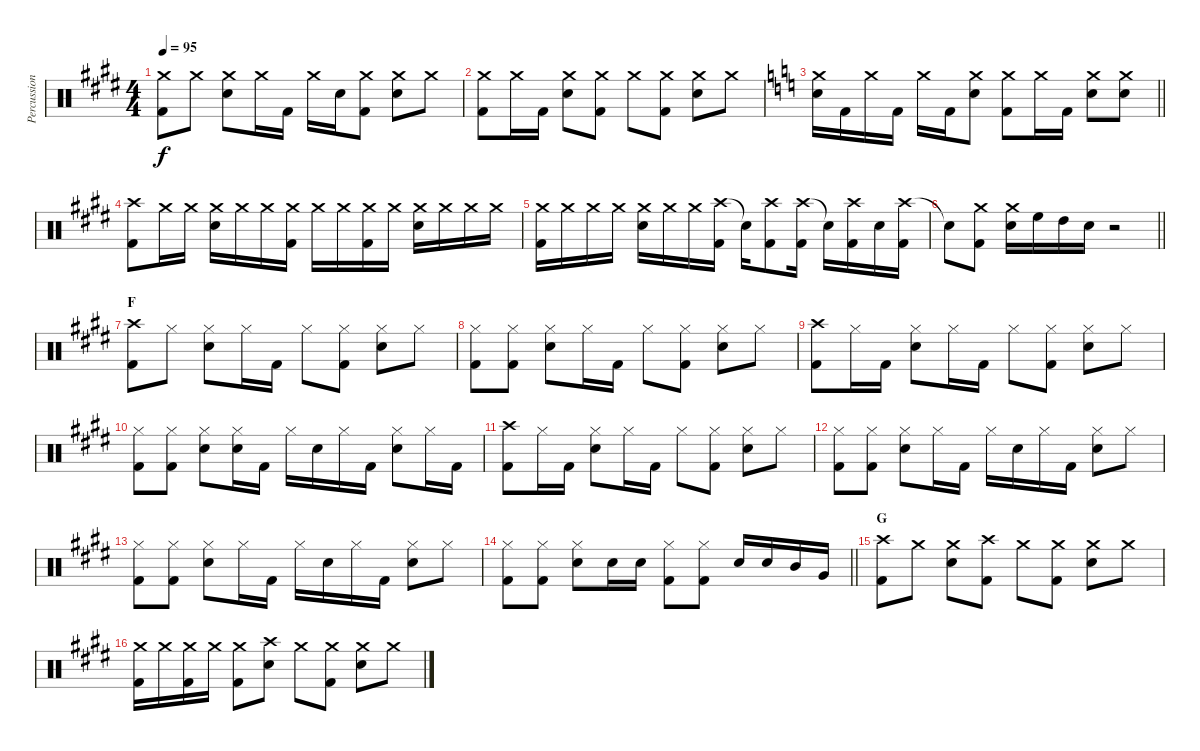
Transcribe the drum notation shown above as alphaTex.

\track ("Percussion" "Percussion") {instrument percussion}
\staff {score}
\articulation defaults
\ts (4 4)
\tempo 95
\clef neutral
\ks e
("Crash medium (hit)" "Kick (hit) 2").8{dy f} "Crash medium (hit)".8 ("Crash medium (hit)" "Snare (hit) 2").8 "Crash medium (hit)".16 "Kick (hit) 2".16 "Crash medium (hit)".16 "Snare (hit) 2".16 ("Crash medium (hit)" "Kick (hit) 2").8 ("Crash medium (hit)" "Snare (hit) 2").8 "Crash medium (hit)".8 |
("Crash medium (hit)" "Kick (hit) 2").8 "Crash medium (hit)".16 "Kick (hit) 2".16 ("Crash medium (hit)" "Snare (hit) 2").8 ("Crash medium (hit)" "Kick (hit) 2").8 "Crash medium (hit)".8 ("Crash medium (hit)" "Kick (hit) 2").8 ("Crash medium (hit)" "Snare (hit) 2").8 "Crash medium (hit)".8 |
\barLineRight lightlight
\ks c
("Crash medium (hit)" "Snare (hit) 2").16 "Kick (hit) 2".16 "Crash medium (hit)".16 "Kick (hit) 2".16 "Crash medium (hit)".16 "Kick (hit) 2".16 ("Crash medium (hit)" "Snare (hit) 2").8 ("Crash medium (hit)" "Kick (hit) 2").8 "Crash medium (hit)".16 "Kick (hit) 2".16 ("Crash medium (hit)" "Snare (hit) 2").8 ("Crash medium (hit)" "Snare (hit) 2").8 |
\ks e
("Crash high (hit)" "Kick (hit) 2").8 "Crash medium (hit)".16 "Crash medium (hit)".16 ("Crash medium (hit)" "Snare (hit) 2").16 "Crash medium (hit)".16 "Crash medium (hit)".16 ("Crash medium (hit)" "Kick (hit) 2").16 "Crash medium (hit)".16 "Crash medium (hit)".16 ("Crash medium (hit)" "Kick (hit) 2").16 "Crash medium (hit)".16 ("Crash medium (hit)" "Snare (hit) 2").16 "Crash medium (hit)".16 "Crash medium (hit)".16 "Crash medium (hit)".16 |
("Crash medium (hit)" "Kick (hit) 2").16 "Crash medium (hit)".16 "Crash medium (hit)".16 "Crash medium (hit)".16 ("Crash medium (hit)" "Snare (hit) 2").16 "Crash medium (hit)".16 "Crash medium (hit)".16 ("Crash high (hit)" "Kick (hit) 2").16 "Snare (hit)"{t}.16 ("Crash high (hit)" "Kick (hit) 2").8 ("Crash high (hit)" "Kick (hit) 2").16 "Snare (hit)"{t}.16 ("Crash high (hit)" "Kick (hit) 2").16 "Snare (hit) 2".16 ("Crash high (hit)" "Kick (hit) 2").16 |
\barLineRight lightlight "Snare (hit)"{t}.8
("Crash medium (hit)" "Kick (hit) 2").8 ("Crash medium (hit)" "Snare (hit) 2").16 "High Floor Tom (hit)".16 "High Tom (hit)".16 "Snare (hit) 2".16 r.2 |
\section ("" "F")
("Crash high (hit)" "Kick (hit) 2").8 "Hi-Hat (closed)".8 ("Hi-Hat (closed)" "Snare (hit) 2").8 "Hi-Hat (closed)".16 "Kick (hit) 2".16 "Hi-Hat (closed)".8 ("Hi-Hat (closed)" "Kick (hit) 2").8 ("Hi-Hat (closed)" "Snare (hit) 2").8 "Hi-Hat (closed)".8 |
("Hi-Hat (closed)" "Kick (hit) 2").8 ("Hi-Hat (closed)" "Kick (hit) 2").8 ("Hi-Hat (closed)" "Snare (hit) 2").8 "Hi-Hat (closed)".16 "Kick (hit) 2".16 "Hi-Hat (closed)".8 ("Hi-Hat (closed)" "Kick (hit) 2").8 ("Hi-Hat (closed)" "Snare (hit) 2").8 "Hi-Hat (closed)".8 |
("Crash high (hit)" "Kick (hit) 2").8 "Hi-Hat (closed)".16 "Kick (hit) 2".16 ("Hi-Hat (closed)" "Snare (hit) 2").8 "Hi-Hat (closed)".16 "Kick (hit) 2".16 "Hi-Hat (closed)".8 ("Hi-Hat (closed)" "Kick (hit) 2").8 ("Hi-Hat (closed)" "Snare (hit) 2").8 "Hi-Hat (closed)".8 |
("Hi-Hat (closed)" "Kick (hit) 2").8 ("Hi-Hat (closed)" "Kick (hit) 2").8 ("Hi-Hat (closed)" "Snare (hit) 2").8 ("Hi-Hat (closed)" "Snare (hit) 2").16 "Kick (hit) 2".16 "Hi-Hat (closed)".16 "Snare (hit) 2".16 "Hi-Hat (closed)".16 "Kick (hit) 2".16 ("Hi-Hat (closed)" "Snare (hit) 2").8 "Hi-Hat (closed)".16 "Kick (hit) 2".16 |
("Crash high (hit)" "Kick (hit) 2").8 "Hi-Hat (closed)".16 "Kick (hit) 2".16 ("Hi-Hat (closed)" "Snare (hit) 2").8 "Hi-Hat (closed)".16 "Kick (hit) 2".16 "Hi-Hat (closed)".8 ("Hi-Hat (closed)" "Kick (hit) 2").8 ("Hi-Hat (closed)" "Snare (hit) 2").8 "Hi-Hat (closed)".8 |
("Hi-Hat (closed)" "Kick (hit) 2").8 ("Hi-Hat (closed)" "Kick (hit) 2").8 ("Hi-Hat (closed)" "Snare (hit) 2").8 "Hi-Hat (closed)".16 "Kick (hit) 2".16 "Hi-Hat (closed)".16 "Snare (hit) 2".16 "Hi-Hat (closed)".16 "Kick (hit) 2".16 ("Hi-Hat (closed)" "Snare (hit) 2").8 "Hi-Hat (closed)".8 |
("Hi-Hat (closed)" "Kick (hit) 2").8 ("Hi-Hat (closed)" "Kick (hit) 2").8 ("Hi-Hat (closed)" "Snare (hit) 2").8 "Hi-Hat (closed)".16 "Kick (hit) 2".16 "Hi-Hat (closed)".16 "Snare (hit) 2".16 "Hi-Hat (closed)".16 "Kick (hit) 2".16 ("Hi-Hat (closed)" "Snare (hit) 2").8 "Hi-Hat (closed)".8 |
\barLineRight lightlight
("Hi-Hat (closed)" "Kick (hit) 2").8 ("Hi-Hat (closed)" "Kick (hit) 2").8 ("Hi-Hat (closed)" "Snare (hit) 2").8 "Snare (hit) 2".16 "Snare (hit) 2".16 ("Hi-Hat (closed)" "Kick (hit) 2").8 ("Hi-Hat (closed)" "Kick (hit) 2").8 "Snare (hit) 2".16 "Snare (hit) 2".16 "Mid Tom (hit)".16 "Very Low Tom (hit)".16 |
\section ("" "G")
("Crash high (hit)" "Kick (hit) 2").8 "Crash medium (hit)".8 ("Crash medium (hit)" "Snare (hit) 2").8 ("Crash high (hit)" "Kick (hit) 2").8 "Crash medium (hit)".8 ("Crash medium (hit)" "Kick (hit) 2").8 ("Crash medium (hit)" "Snare (hit) 2").8 "Crash medium (hit)".8 |
("Crash medium (hit)" "Kick (hit) 2").16 "Crash medium (hit)".16 ("Crash medium (hit)" "Kick (hit) 2").16 "Crash medium (hit)".16 ("Crash medium (hit)" "Kick (hit) 2").8 ("Crash high (hit)" "Snare (hit) 2").8 "Crash medium (hit)".8 ("Crash medium (hit)" "Kick (hit) 2").8 ("Crash medium (hit)" "Snare (hit) 2").8 "Crash medium (hit)".8
